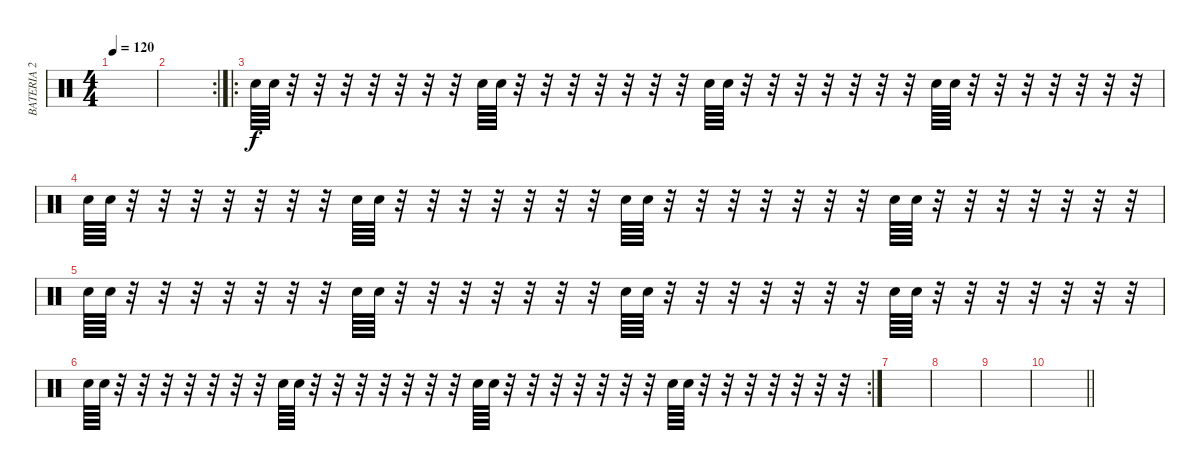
\track ("BATERIA 2" "BATERIA 2") {instrument percussion}
\staff {score}
\articulation defaults
\ts (4 4)
\tempo 120
\clef neutral
\ks c
|
\rc 2
|
\ro "Snare (hit) 2".64 "Snare (hit) 2".64
r.32 r.32 r.32 r.32 r.32 r.32 r.32 "Snare (hit) 2".64 "Snare (hit) 2".64 r.32 r.32 r.32 r.32 r.32 r.32 r.32 "Snare (hit) 2".64 "Snare (hit) 2".64 r.32 r.32 r.32 r.32 r.32 r.32 r.32 "Snare (hit) 2".64 "Snare (hit) 2".64 r.32 r.32 r.32 r.32 r.32 r.32 r.32 |
"Snare (hit) 2".64 "Snare (hit) 2".64 r.32 r.32 r.32 r.32 r.32 r.32 r.32 "Snare (hit) 2".64 "Snare (hit) 2".64 r.32 r.32 r.32 r.32 r.32 r.32 r.32 "Snare (hit) 2".64 "Snare (hit) 2".64 r.32 r.32 r.32 r.32 r.32 r.32 r.32 "Snare (hit) 2".64 "Snare (hit) 2".64 r.32 r.32 r.32 r.32 r.32 r.32 r.32 |
"Snare (hit) 2".64 "Snare (hit) 2".64 r.32 r.32 r.32 r.32 r.32 r.32 r.32 "Snare (hit) 2".64 "Snare (hit) 2".64 r.32 r.32 r.32 r.32 r.32 r.32 r.32 "Snare (hit) 2".64 "Snare (hit) 2".64 r.32 r.32 r.32 r.32 r.32 r.32 r.32 "Snare (hit) 2".64 "Snare (hit) 2".64 r.32 r.32 r.32 r.32 r.32 r.32 r.32 |
\rc 2 "Snare (hit) 2".64 "Snare (hit) 2".64
r.32 r.32 r.32 r.32 r.32 r.32 r.32 "Snare (hit) 2".64 "Snare (hit) 2".64 r.32 r.32 r.32 r.32 r.32 r.32 r.32 "Snare (hit) 2".64 "Snare (hit) 2".64 r.32 r.32 r.32 r.32 r.32 r.32 r.32 "Snare (hit) 2".64 "Snare (hit) 2".64 r.32 r.32 r.32 r.32 r.32 r.32 r.32 |
|
|
|
\barLineRight lightlight
